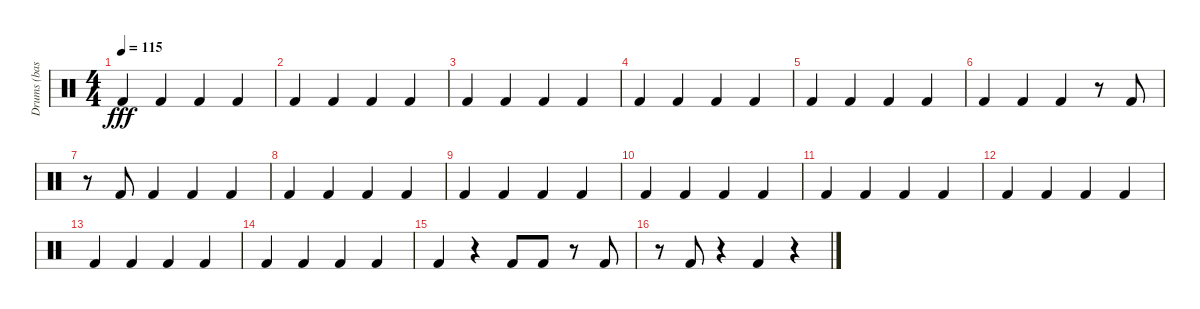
\track ("Drums (bass drum)" "Drums (bas") {instrument percussion}
\staff {score}
\articulation defaults
\ts (4 4)
\tempo 115
\clef neutral
\ks c "Kick (hit) 2".4{dy fff} "Kick (hit) 2".4 "Kick (hit) 2".4 "Kick (hit) 2".4
|
"Kick (hit) 2".4 "Kick (hit) 2".4 "Kick (hit) 2".4 "Kick (hit) 2".4 |
"Kick (hit) 2".4 "Kick (hit) 2".4 "Kick (hit) 2".4 "Kick (hit) 2".4 |
"Kick (hit) 2".4 "Kick (hit) 2".4 "Kick (hit) 2".4 "Kick (hit) 2".4 |
"Kick (hit) 2".4 "Kick (hit) 2".4 "Kick (hit) 2".4 "Kick (hit) 2".4 |
"Kick (hit) 2".4 "Kick (hit) 2".4 "Kick (hit) 2".4 r.8 "Kick (hit) 2".8 |
r.8 "Kick (hit) 2".8 "Kick (hit) 2".4 "Kick (hit) 2".4 "Kick (hit) 2".4 |
"Kick (hit) 2".4 "Kick (hit) 2".4 "Kick (hit) 2".4 "Kick (hit) 2".4 |
"Kick (hit) 2".4 "Kick (hit) 2".4 "Kick (hit) 2".4 "Kick (hit) 2".4 |
"Kick (hit) 2".4 "Kick (hit) 2".4 "Kick (hit) 2".4 "Kick (hit) 2".4 |
"Kick (hit) 2".4 "Kick (hit) 2".4 "Kick (hit) 2".4 "Kick (hit) 2".4 |
"Kick (hit) 2".4 "Kick (hit) 2".4 "Kick (hit) 2".4 "Kick (hit) 2".4 |
"Kick (hit) 2".4 "Kick (hit) 2".4 "Kick (hit) 2".4 "Kick (hit) 2".4 |
"Kick (hit) 2".4 "Kick (hit) 2".4 "Kick (hit) 2".4 "Kick (hit) 2".4 |
"Kick (hit) 2".4 r.4 "Kick (hit) 2".8 "Kick (hit) 2".8 r.8 "Kick (hit) 2".8 |
r.8 "Kick (hit) 2".8 r.4 "Kick (hit) 2".4 r.4
